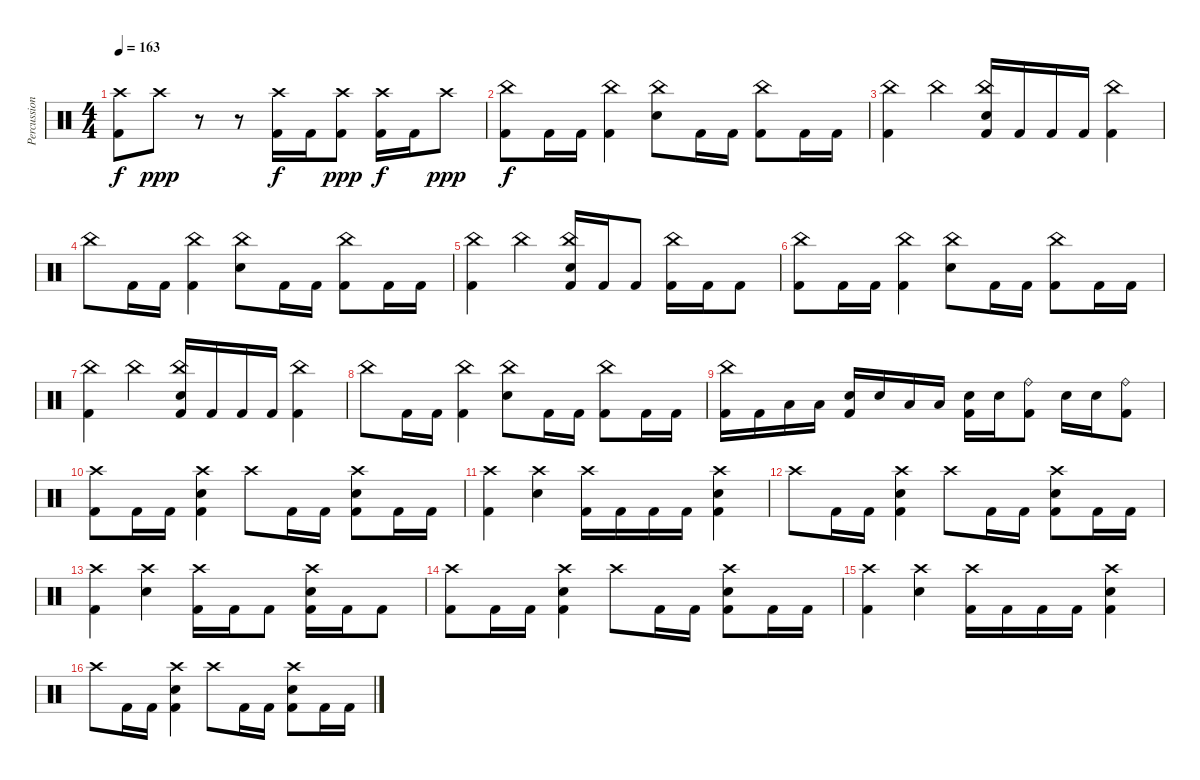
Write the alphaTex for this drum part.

\track ("Percussion" "Percussion") {instrument percussion}
\staff {score}
\articulation defaults
\ts (4 4)
\tempo 163
\clef neutral
\ks c
("Crash high (hit)" "Kick (hit) 2").8{dy f} "Crash high (hit)".8{dy ppp} r.8 r.8 ("Crash high (hit)" "Kick (hit) 2").16{dy f} "Kick (hit) 2".16 ("Crash high (hit)" "Kick (hit) 2").8{dy ppp} ("Crash high (hit)" "Kick (hit) 2").16{dy f} "Kick (hit) 2".16 "Crash high (hit)".8{dy ppp} |
("China (hit)" "Kick (hit) 2").8{dy f} "Kick (hit) 2".16 "Kick (hit) 2".16 ("China (hit)" "Kick (hit) 2").4 ("China (hit)" "Electric Snare (hit)").8 "Kick (hit) 2".16 "Kick (hit) 2".16 ("China (hit)" "Kick (hit) 2").8 "Kick (hit) 2".16 "Kick (hit) 2".16 |
("China (hit)" "Kick (hit) 2").4 "China (hit)".4 ("China (hit)" "Electric Snare (hit)" "Kick (hit) 2").16 "Kick (hit) 2".16 "Kick (hit) 2".16 "Kick (hit) 2".16 ("China (hit)" "Kick (hit) 2").4 |
"China (hit)".8 "Kick (hit) 2".16 "Kick (hit) 2".16 ("China (hit)" "Kick (hit) 2").4 ("China (hit)" "Electric Snare (hit)").8 "Kick (hit) 2".16 "Kick (hit) 2".16 ("China (hit)" "Kick (hit) 2").8 "Kick (hit) 2".16 "Kick (hit) 2".16 |
("China (hit)" "Kick (hit) 2").4 "China (hit)".4 ("China (hit)" "Electric Snare (hit)" "Kick (hit) 2").16 "Kick (hit) 2".16 "Kick (hit) 2".8 ("China (hit)" "Kick (hit) 2").16 "Kick (hit) 2".16 "Kick (hit) 2".8 |
("China (hit)" "Kick (hit) 2").8 "Kick (hit) 2".16 "Kick (hit) 2".16 ("China (hit)" "Kick (hit) 2").4 ("China (hit)" "Electric Snare (hit)").8 "Kick (hit) 2".16 "Kick (hit) 2".16 ("China (hit)" "Kick (hit) 2").8 "Kick (hit) 2".16 "Kick (hit) 2".16 |
("China (hit)" "Kick (hit) 2").4 "China (hit)".4 ("China (hit)" "Electric Snare (hit)" "Kick (hit) 2").16 "Kick (hit) 2".16 "Kick (hit) 2".16 "Kick (hit) 2".16 ("China (hit)" "Kick (hit) 2").4 |
"China (hit)".8 "Kick (hit) 2".16 "Kick (hit) 2".16 ("China (hit)" "Kick (hit) 2").4 ("China (hit)" "Electric Snare (hit)").8 "Kick (hit) 2".16 "Kick (hit) 2".16 ("China (hit)" "Kick (hit) 2").8 "Kick (hit) 2".16 "Kick (hit) 2".16 |
("China (hit)" "Kick (hit) 2").16 "Kick (hit) 2".16 "Low Tom (hit)".16 "Low Tom (hit)".16 ("Electric Snare (hit)" "Kick (hit) 2").16 "Electric Snare (hit)".16 "Low Tom (hit)".16 "Low Tom (hit)".16 ("Electric Snare (hit)" "Kick (hit) 2").16 "Electric Snare (hit)".16 ("Ride (bell)" "Kick (hit) 2").8 "Electric Snare (hit)".16 "Electric Snare (hit)".16 ("Ride (bell)" "Kick (hit) 2").8 |
("Crash high (hit)" "Kick (hit) 2").8 "Kick (hit) 2".16 "Kick (hit) 2".16 ("Crash high (hit)" "Electric Snare (hit)" "Kick (hit) 2").4 "Crash high (hit)".8 "Kick (hit) 2".16 "Kick (hit) 2".16 ("Crash high (hit)" "Electric Snare (hit)" "Kick (hit) 2").8 "Kick (hit) 2".16 "Kick (hit) 2".16 |
("Crash high (hit)" "Kick (hit) 2").4 ("Crash high (hit)" "Electric Snare (hit)").4 ("Crash high (hit)" "Kick (hit) 2").16 "Kick (hit) 2".16 "Kick (hit) 2".16 "Kick (hit) 2".16 ("Crash high (hit)" "Electric Snare (hit)" "Kick (hit) 2").4 |
"Crash high (hit)".8 "Kick (hit) 2".16 "Kick (hit) 2".16 ("Crash high (hit)" "Electric Snare (hit)" "Kick (hit) 2").4 "Crash high (hit)".8 "Kick (hit) 2".16 "Kick (hit) 2".16 ("Crash high (hit)" "Electric Snare (hit)" "Kick (hit) 2").8 "Kick (hit) 2".16 "Kick (hit) 2".16 |
("Crash high (hit)" "Kick (hit) 2").4 ("Crash high (hit)" "Electric Snare (hit)").4 ("Crash high (hit)" "Kick (hit) 2").16 "Kick (hit) 2".16 "Kick (hit) 2".8 ("Crash high (hit)" "Electric Snare (hit)" "Kick (hit) 2").16 "Kick (hit) 2".16 "Kick (hit) 2".8 |
("Crash high (hit)" "Kick (hit) 2").8 "Kick (hit) 2".16 "Kick (hit) 2".16 ("Crash high (hit)" "Electric Snare (hit)" "Kick (hit) 2").4 "Crash high (hit)".8 "Kick (hit) 2".16 "Kick (hit) 2".16 ("Crash high (hit)" "Electric Snare (hit)" "Kick (hit) 2").8 "Kick (hit) 2".16 "Kick (hit) 2".16 |
("Crash high (hit)" "Kick (hit) 2").4 ("Crash high (hit)" "Electric Snare (hit)").4 ("Crash high (hit)" "Kick (hit) 2").16 "Kick (hit) 2".16 "Kick (hit) 2".16 "Kick (hit) 2".16 ("Crash high (hit)" "Electric Snare (hit)" "Kick (hit) 2").4 |
"Crash high (hit)".8 "Kick (hit) 2".16 "Kick (hit) 2".16 ("Crash high (hit)" "Electric Snare (hit)" "Kick (hit) 2").4 "Crash high (hit)".8 "Kick (hit) 2".16 "Kick (hit) 2".16 ("Crash high (hit)" "Electric Snare (hit)" "Kick (hit) 2").8 "Kick (hit) 2".16 "Kick (hit) 2".16
